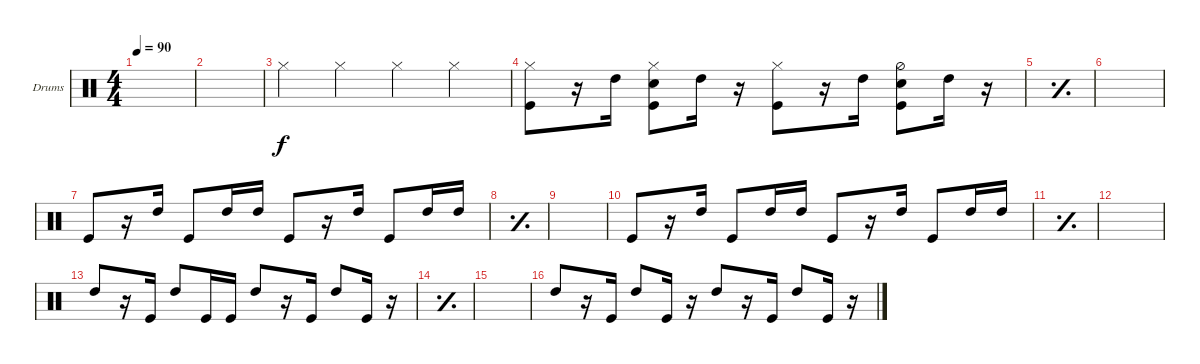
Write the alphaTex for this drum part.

\bracketExtendMode groupsimilarinstruments
\firstSystemTrackNameOrientation horizontal
\otherSystemsTrackNameOrientation horizontal
\track ("Drumkit" "Drums") {instrument percussion}
\staff {score}
\articulation defaults
\ts (4 4)
\tempo 90
\clef neutral
\scale
0.472222
\ks c
|
|
"Hi-Hat (closed)".4 "Hi-Hat (closed)".4 "Hi-Hat (closed)".4 "Hi-Hat (closed)".4 |
\scale
0.333333 ("Kick (hit)" "Hi-Hat (closed)").8 r.16 "High Tom (hit)".16 ("Kick (hit)" "Snare (hit) 2" "Hi-Hat (closed)").8 "High Tom (hit)".16 r.16 ("Kick (hit)" "Hi-Hat (closed)").8 r.16 "High Tom (hit)".16 ("Kick (hit)" "Snare (hit) 2" "Hi-Hat (half)").8 "High Tom (hit)".16 r.16 |
\simile simple
\scale
0.333333 |
\scale
0.333333 |
\simile none
\scale
0.333333 "Kick (hit)".8 r.16 "High Tom (hit)".16 "Kick (hit)".8 "High Tom (hit)".16 "High Tom (hit)".16 "Kick (hit)".8 r.16 "High Tom (hit)".16 "Kick (hit)".8 "High Tom (hit)".16 "High Tom (hit)".16 |
\simile simple
\scale
0.333333 |
\scale
0.333333 |
\simile none
\scale
0.333333 "Kick (hit)".8 r.16 "High Tom (hit)".16 "Kick (hit)".8 "High Tom (hit)".16 "High Tom (hit)".16 "Kick (hit)".8 r.16 "High Tom (hit)".16 "Kick (hit)".8 "High Tom (hit)".16 "High Tom (hit)".16 |
\simile simple
\scale
0.333333 |
\scale
0.333333 |
\simile none
\scale
0.333333 "High Tom (hit)".8 r.16 "Kick (hit)".16 "High Tom (hit)".8 "Kick (hit)".16 "Kick (hit)".16 "High Tom (hit)".8 r.16 "Kick (hit)".16 "High Tom (hit)".8 "Kick (hit)".16 r.16 |
\simile simple
\scale
0.333333 |
\scale
0.333333 |
\simile none
\scale
0.333333 "High Tom (hit)".8 r.16 "Kick (hit)".16 "High Tom (hit)".8 "Kick (hit)".16 r.16 "High Tom (hit)".8 r.16 "Kick (hit)".16 "High Tom (hit)".8 "Kick (hit)".16 r.16
